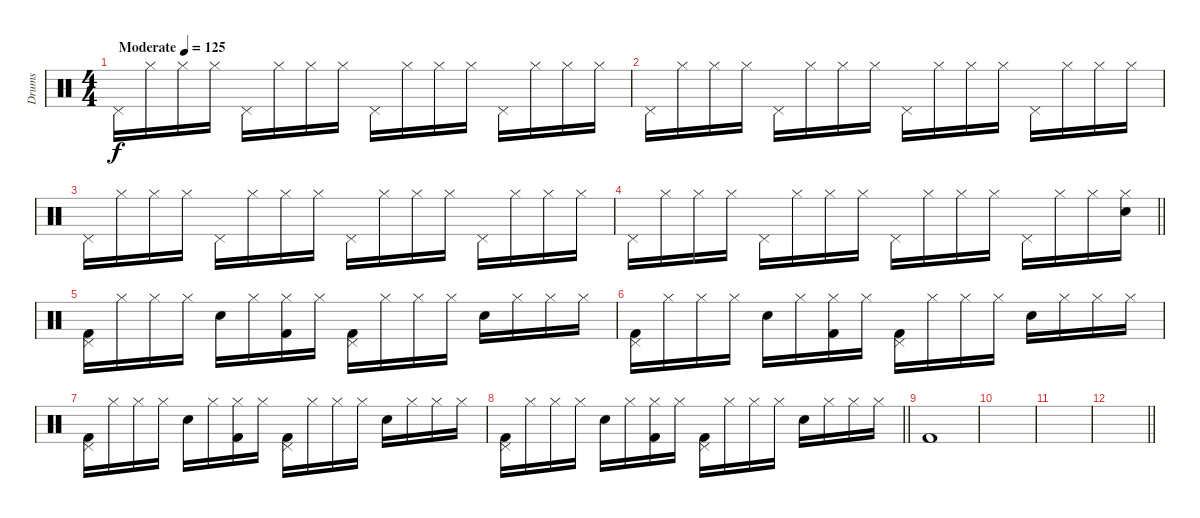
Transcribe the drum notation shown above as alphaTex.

\track ("Drums" "Drums") {instrument percussion}
\staff {score}
\articulation defaults
\ts (4 4)
\tempo (125 "Moderate")
\clef neutral
\ks c "Pedal Hi-Hat (hit)".16{dy f} "Hi-Hat (closed)".16 "Hi-Hat (closed)".16 "Hi-Hat (closed)".16 "Pedal Hi-Hat (hit)".16 "Hi-Hat (closed)".16 "Hi-Hat (closed)".16 "Hi-Hat (closed)".16 "Pedal Hi-Hat (hit)".16 "Hi-Hat (closed)".16 "Hi-Hat (closed)".16 "Hi-Hat (closed)".16 "Pedal Hi-Hat (hit)".16 "Hi-Hat (closed)".16 "Hi-Hat (closed)".16 "Hi-Hat (closed)".16
|
"Pedal Hi-Hat (hit)".16 "Hi-Hat (closed)".16 "Hi-Hat (closed)".16 "Hi-Hat (closed)".16 "Pedal Hi-Hat (hit)".16 "Hi-Hat (closed)".16 "Hi-Hat (closed)".16 "Hi-Hat (closed)".16 "Pedal Hi-Hat (hit)".16 "Hi-Hat (closed)".16 "Hi-Hat (closed)".16 "Hi-Hat (closed)".16 "Pedal Hi-Hat (hit)".16 "Hi-Hat (closed)".16 "Hi-Hat (closed)".16 "Hi-Hat (closed)".16 |
"Pedal Hi-Hat (hit)".16 "Hi-Hat (closed)".16 "Hi-Hat (closed)".16 "Hi-Hat (closed)".16 "Pedal Hi-Hat (hit)".16 "Hi-Hat (closed)".16 "Hi-Hat (closed)".16 "Hi-Hat (closed)".16 "Pedal Hi-Hat (hit)".16 "Hi-Hat (closed)".16 "Hi-Hat (closed)".16 "Hi-Hat (closed)".16 "Pedal Hi-Hat (hit)".16 "Hi-Hat (closed)".16 "Hi-Hat (closed)".16 "Hi-Hat (closed)".16 |
\barLineRight lightlight "Pedal Hi-Hat (hit)".16 "Hi-Hat (closed)".16 "Hi-Hat (closed)".16 "Hi-Hat (closed)".16 "Pedal Hi-Hat (hit)".16 "Hi-Hat (closed)".16 "Hi-Hat (closed)".16 "Hi-Hat (closed)".16 "Pedal Hi-Hat (hit)".16 "Hi-Hat (closed)".16 "Hi-Hat (closed)".16 "Hi-Hat (closed)".16 "Pedal Hi-Hat (hit)".16 "Hi-Hat (closed)".16 "Hi-Hat (closed)".16
("Hi-Hat (closed)" "Snare (hit) 2").16 |
("Pedal Hi-Hat (hit)" "Kick (hit) 2").16 "Hi-Hat (closed)".16 "Hi-Hat (closed)".16 "Hi-Hat (closed)".16 "Snare (hit) 2".16 "Hi-Hat (closed)".16 ("Hi-Hat (closed)" "Kick (hit) 2").16 "Hi-Hat (closed)".16 ("Pedal Hi-Hat (hit)" "Kick (hit) 2").16 "Hi-Hat (closed)".16 "Hi-Hat (closed)".16 "Hi-Hat (closed)".16 "Snare (hit) 2".16 "Hi-Hat (closed)".16 "Hi-Hat (closed)".16 "Hi-Hat (closed)".16 |
("Pedal Hi-Hat (hit)" "Kick (hit) 2").16 "Hi-Hat (closed)".16 "Hi-Hat (closed)".16 "Hi-Hat (closed)".16 "Snare (hit) 2".16 "Hi-Hat (closed)".16 ("Hi-Hat (closed)" "Kick (hit) 2").16 "Hi-Hat (closed)".16 ("Pedal Hi-Hat (hit)" "Kick (hit) 2").16 "Hi-Hat (closed)".16 "Hi-Hat (closed)".16 "Hi-Hat (closed)".16 "Snare (hit) 2".16 "Hi-Hat (closed)".16 "Hi-Hat (closed)".16 "Hi-Hat (closed)".16 |
("Pedal Hi-Hat (hit)" "Kick (hit) 2").16 "Hi-Hat (closed)".16 "Hi-Hat (closed)".16 "Hi-Hat (closed)".16 "Snare (hit) 2".16 "Hi-Hat (closed)".16 ("Hi-Hat (closed)" "Kick (hit) 2").16 "Hi-Hat (closed)".16 ("Pedal Hi-Hat (hit)" "Kick (hit) 2").16 "Hi-Hat (closed)".16 "Hi-Hat (closed)".16 "Hi-Hat (closed)".16 "Snare (hit) 2".16 "Hi-Hat (closed)".16 "Hi-Hat (closed)".16 "Hi-Hat (closed)".16 |
\barLineRight lightlight
("Pedal Hi-Hat (hit)" "Kick (hit) 2").16 "Hi-Hat (closed)".16 "Hi-Hat (closed)".16 "Hi-Hat (closed)".16 "Snare (hit) 2".16 "Hi-Hat (closed)".16 ("Hi-Hat (closed)" "Kick (hit) 2").16 "Hi-Hat (closed)".16 ("Pedal Hi-Hat (hit)" "Kick (hit) 2").16 "Hi-Hat (closed)".16 "Hi-Hat (closed)".16 "Hi-Hat (closed)".16 "Snare (hit) 2".16 "Hi-Hat (closed)".16 "Hi-Hat (closed)".16 "Hi-Hat (closed)".16 |
"Kick (hit) 2".1 |
|
|
\barLineRight lightlight
